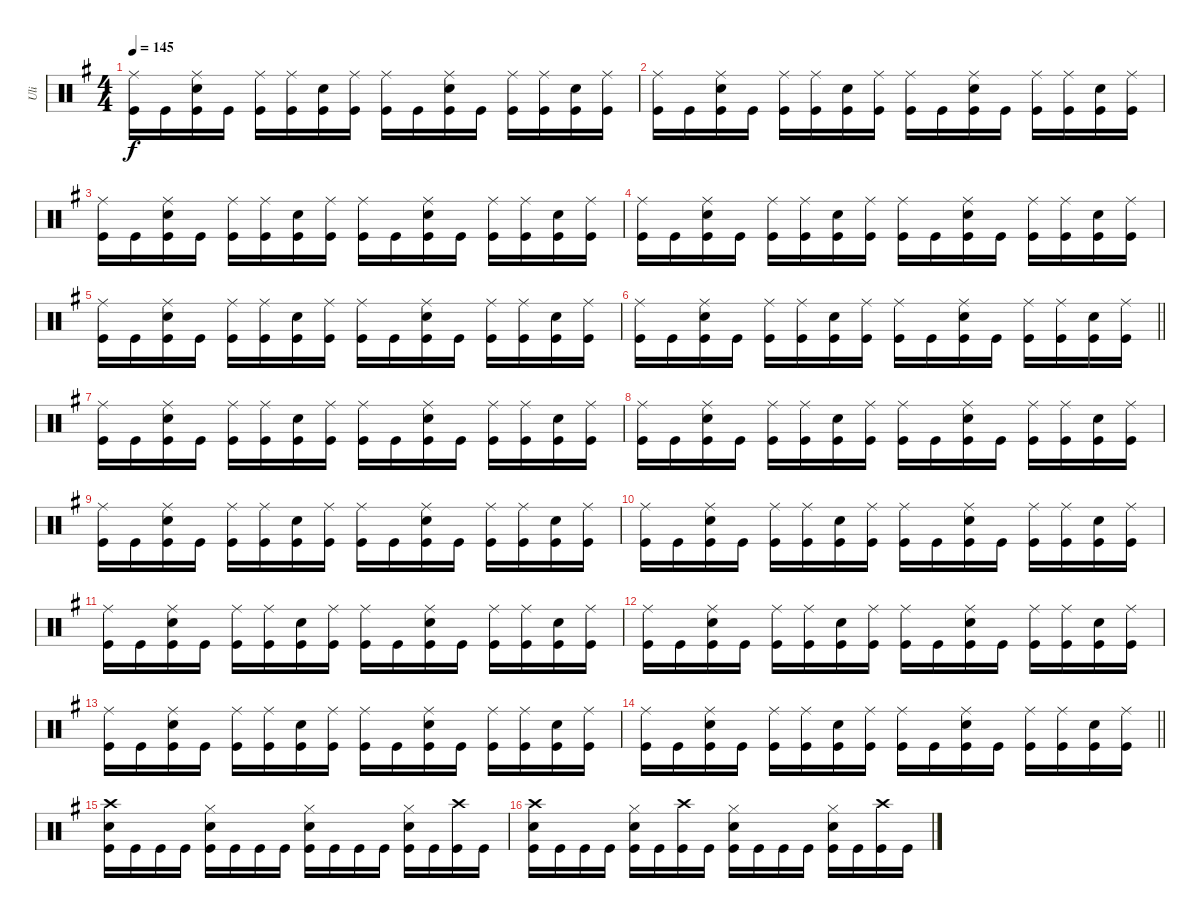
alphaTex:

\track ("Uli" "Uli") {instrument percussion}
\staff {score}
\articulation defaults
\ts (4 4)
\tempo 145
\clef neutral
\ks eminor
("Ride (middle)" "Kick (hit)").16{dy f} "Kick (hit)".16 ("Ride (middle)" "Snare (hit) 2" "Kick (hit)").16 "Kick (hit)".16 ("Ride (middle)" "Kick (hit)").16 ("Ride (middle)" "Kick (hit)").16 ("Snare (hit) 2" "Kick (hit)").16 ("Ride (middle)" "Kick (hit)").16 ("Ride (middle)" "Kick (hit)").16 "Kick (hit)".16 ("Ride (middle)" "Snare (hit) 2" "Kick (hit)").16 "Kick (hit)".16 ("Ride (middle)" "Kick (hit)").16 ("Ride (middle)" "Kick (hit)").16 ("Snare (hit) 2" "Kick (hit)").16 ("Ride (middle)" "Kick (hit)").16 |
("Ride (middle)" "Kick (hit)").16 "Kick (hit)".16 ("Ride (middle)" "Snare (hit) 2" "Kick (hit)").16 "Kick (hit)".16 ("Ride (middle)" "Kick (hit)").16 ("Ride (middle)" "Kick (hit)").16 ("Snare (hit) 2" "Kick (hit)").16 ("Ride (middle)" "Kick (hit)").16 ("Ride (middle)" "Kick (hit)").16 "Kick (hit)".16 ("Ride (middle)" "Snare (hit) 2" "Kick (hit)").16 "Kick (hit)".16 ("Ride (middle)" "Kick (hit)").16 ("Ride (middle)" "Kick (hit)").16 ("Snare (hit) 2" "Kick (hit)").16 ("Ride (middle)" "Kick (hit)").16 |
("Ride (middle)" "Kick (hit)").16 "Kick (hit)".16 ("Ride (middle)" "Snare (hit) 2" "Kick (hit)").16 "Kick (hit)".16 ("Ride (middle)" "Kick (hit)").16 ("Ride (middle)" "Kick (hit)").16 ("Snare (hit) 2" "Kick (hit)").16 ("Ride (middle)" "Kick (hit)").16 ("Ride (middle)" "Kick (hit)").16 "Kick (hit)".16 ("Ride (middle)" "Snare (hit) 2" "Kick (hit)").16 "Kick (hit)".16 ("Ride (middle)" "Kick (hit)").16 ("Ride (middle)" "Kick (hit)").16 ("Snare (hit) 2" "Kick (hit)").16 ("Ride (middle)" "Kick (hit)").16 |
("Ride (middle)" "Kick (hit)").16 "Kick (hit)".16 ("Ride (middle)" "Snare (hit) 2" "Kick (hit)").16 "Kick (hit)".16 ("Ride (middle)" "Kick (hit)").16 ("Ride (middle)" "Kick (hit)").16 ("Snare (hit) 2" "Kick (hit)").16 ("Ride (middle)" "Kick (hit)").16 ("Ride (middle)" "Kick (hit)").16 "Kick (hit)".16 ("Ride (middle)" "Snare (hit) 2" "Kick (hit)").16 "Kick (hit)".16 ("Ride (middle)" "Kick (hit)").16 ("Ride (middle)" "Kick (hit)").16 ("Snare (hit) 2" "Kick (hit)").16 ("Ride (middle)" "Kick (hit)").16 |
("Ride (middle)" "Kick (hit)").16 "Kick (hit)".16 ("Ride (middle)" "Snare (hit) 2" "Kick (hit)").16 "Kick (hit)".16 ("Ride (middle)" "Kick (hit)").16 ("Ride (middle)" "Kick (hit)").16 ("Snare (hit) 2" "Kick (hit)").16 ("Ride (middle)" "Kick (hit)").16 ("Ride (middle)" "Kick (hit)").16 "Kick (hit)".16 ("Ride (middle)" "Snare (hit) 2" "Kick (hit)").16 "Kick (hit)".16 ("Ride (middle)" "Kick (hit)").16 ("Ride (middle)" "Kick (hit)").16 ("Snare (hit) 2" "Kick (hit)").16 ("Ride (middle)" "Kick (hit)").16 |
\barLineRight lightlight
("Ride (middle)" "Kick (hit)").16 "Kick (hit)".16 ("Ride (middle)" "Snare (hit) 2" "Kick (hit)").16 "Kick (hit)".16 ("Ride (middle)" "Kick (hit)").16 ("Ride (middle)" "Kick (hit)").16 ("Snare (hit) 2" "Kick (hit)").16 ("Ride (middle)" "Kick (hit)").16 ("Ride (middle)" "Kick (hit)").16 "Kick (hit)".16 ("Ride (middle)" "Snare (hit) 2" "Kick (hit)").16 "Kick (hit)".16 ("Ride (middle)" "Kick (hit)").16 ("Ride (middle)" "Kick (hit)").16 ("Snare (hit) 2" "Kick (hit)").16 ("Ride (middle)" "Kick (hit)").16 |
("Ride (middle)" "Kick (hit)").16 "Kick (hit)".16 ("Ride (middle)" "Snare (hit) 2" "Kick (hit)").16 "Kick (hit)".16 ("Ride (middle)" "Kick (hit)").16 ("Ride (middle)" "Kick (hit)").16 ("Snare (hit) 2" "Kick (hit)").16 ("Ride (middle)" "Kick (hit)").16 ("Ride (middle)" "Kick (hit)").16 "Kick (hit)".16 ("Ride (middle)" "Snare (hit) 2" "Kick (hit)").16 "Kick (hit)".16 ("Ride (middle)" "Kick (hit)").16 ("Ride (middle)" "Kick (hit)").16 ("Snare (hit) 2" "Kick (hit)").16 ("Ride (middle)" "Kick (hit)").16 |
("Ride (middle)" "Kick (hit)").16 "Kick (hit)".16 ("Ride (middle)" "Snare (hit) 2" "Kick (hit)").16 "Kick (hit)".16 ("Ride (middle)" "Kick (hit)").16 ("Ride (middle)" "Kick (hit)").16 ("Snare (hit) 2" "Kick (hit)").16 ("Ride (middle)" "Kick (hit)").16 ("Ride (middle)" "Kick (hit)").16 "Kick (hit)".16 ("Ride (middle)" "Snare (hit) 2" "Kick (hit)").16 "Kick (hit)".16 ("Ride (middle)" "Kick (hit)").16 ("Ride (middle)" "Kick (hit)").16 ("Snare (hit) 2" "Kick (hit)").16 ("Ride (middle)" "Kick (hit)").16 |
("Ride (middle)" "Kick (hit)").16 "Kick (hit)".16 ("Ride (middle)" "Snare (hit) 2" "Kick (hit)").16 "Kick (hit)".16 ("Ride (middle)" "Kick (hit)").16 ("Ride (middle)" "Kick (hit)").16 ("Snare (hit) 2" "Kick (hit)").16 ("Ride (middle)" "Kick (hit)").16 ("Ride (middle)" "Kick (hit)").16 "Kick (hit)".16 ("Ride (middle)" "Snare (hit) 2" "Kick (hit)").16 "Kick (hit)".16 ("Ride (middle)" "Kick (hit)").16 ("Ride (middle)" "Kick (hit)").16 ("Snare (hit) 2" "Kick (hit)").16 ("Ride (middle)" "Kick (hit)").16 |
("Ride (middle)" "Kick (hit)").16 "Kick (hit)".16 ("Ride (middle)" "Snare (hit) 2" "Kick (hit)").16 "Kick (hit)".16 ("Ride (middle)" "Kick (hit)").16 ("Ride (middle)" "Kick (hit)").16 ("Snare (hit) 2" "Kick (hit)").16 ("Ride (middle)" "Kick (hit)").16 ("Ride (middle)" "Kick (hit)").16 "Kick (hit)".16 ("Ride (middle)" "Snare (hit) 2" "Kick (hit)").16 "Kick (hit)".16 ("Ride (middle)" "Kick (hit)").16 ("Ride (middle)" "Kick (hit)").16 ("Snare (hit) 2" "Kick (hit)").16 ("Ride (middle)" "Kick (hit)").16 |
("Ride (middle)" "Kick (hit)").16 "Kick (hit)".16 ("Ride (middle)" "Snare (hit) 2" "Kick (hit)").16 "Kick (hit)".16 ("Ride (middle)" "Kick (hit)").16 ("Ride (middle)" "Kick (hit)").16 ("Snare (hit) 2" "Kick (hit)").16 ("Ride (middle)" "Kick (hit)").16 ("Ride (middle)" "Kick (hit)").16 "Kick (hit)".16 ("Ride (middle)" "Snare (hit) 2" "Kick (hit)").16 "Kick (hit)".16 ("Ride (middle)" "Kick (hit)").16 ("Ride (middle)" "Kick (hit)").16 ("Snare (hit) 2" "Kick (hit)").16 ("Ride (middle)" "Kick (hit)").16 |
("Ride (middle)" "Kick (hit)").16 "Kick (hit)".16 ("Ride (middle)" "Snare (hit) 2" "Kick (hit)").16 "Kick (hit)".16 ("Ride (middle)" "Kick (hit)").16 ("Ride (middle)" "Kick (hit)").16 ("Snare (hit) 2" "Kick (hit)").16 ("Ride (middle)" "Kick (hit)").16 ("Ride (middle)" "Kick (hit)").16 "Kick (hit)".16 ("Ride (middle)" "Snare (hit) 2" "Kick (hit)").16 "Kick (hit)".16 ("Ride (middle)" "Kick (hit)").16 ("Ride (middle)" "Kick (hit)").16 ("Snare (hit) 2" "Kick (hit)").16 ("Ride (middle)" "Kick (hit)").16 |
("Ride (middle)" "Kick (hit)").16 "Kick (hit)".16 ("Ride (middle)" "Snare (hit) 2" "Kick (hit)").16 "Kick (hit)".16 ("Ride (middle)" "Kick (hit)").16 ("Ride (middle)" "Kick (hit)").16 ("Snare (hit) 2" "Kick (hit)").16 ("Ride (middle)" "Kick (hit)").16 ("Ride (middle)" "Kick (hit)").16 "Kick (hit)".16 ("Ride (middle)" "Snare (hit) 2" "Kick (hit)").16 "Kick (hit)".16 ("Ride (middle)" "Kick (hit)").16 ("Ride (middle)" "Kick (hit)").16 ("Snare (hit) 2" "Kick (hit)").16 ("Ride (middle)" "Kick (hit)").16 |
\barLineRight lightlight
("Ride (middle)" "Kick (hit)").16 "Kick (hit)".16 ("Ride (middle)" "Snare (hit) 2" "Kick (hit)").16 "Kick (hit)".16 ("Ride (middle)" "Kick (hit)").16 ("Ride (middle)" "Kick (hit)").16 ("Snare (hit) 2" "Kick (hit)").16 ("Ride (middle)" "Kick (hit)").16 ("Ride (middle)" "Kick (hit)").16 "Kick (hit)".16 ("Ride (middle)" "Snare (hit) 2" "Kick (hit)").16 "Kick (hit)".16 ("Ride (middle)" "Kick (hit)").16 ("Ride (middle)" "Kick (hit)").16 ("Snare (hit) 2" "Kick (hit)").16 ("Ride (middle)" "Kick (hit)").16 |
("Crash high (hit)" "Snare (hit) 2" "Kick (hit)").16 "Kick (hit)".16 "Kick (hit)".16 "Kick (hit)".16 ("Hi-Hat (closed)" "Snare (hit) 2" "Kick (hit)").16 "Kick (hit)".16 "Kick (hit)".16 "Kick (hit)".16 ("Hi-Hat (closed)" "Snare (hit) 2" "Kick (hit)").16 "Kick (hit)".16 "Kick (hit)".16 "Kick (hit)".16 ("Hi-Hat (closed)" "Snare (hit) 2" "Kick (hit)").16 "Kick (hit)".16 ("Crash high (hit)" "Kick (hit)").16 "Kick (hit)".16 |
("Crash high (hit)" "Snare (hit) 2" "Kick (hit)").16 "Kick (hit)".16 "Kick (hit)".16 "Kick (hit)".16 ("Hi-Hat (closed)" "Snare (hit) 2" "Kick (hit)").16 "Kick (hit)".16 ("Crash high (hit)" "Kick (hit)").16 "Kick (hit)".16 ("Hi-Hat (closed)" "Snare (hit) 2" "Kick (hit)").16 "Kick (hit)".16 "Kick (hit)".16 "Kick (hit)".16 ("Hi-Hat (closed)" "Snare (hit) 2" "Kick (hit)").16 "Kick (hit)".16 ("Crash high (hit)" "Kick (hit)").16 "Kick (hit)".16
